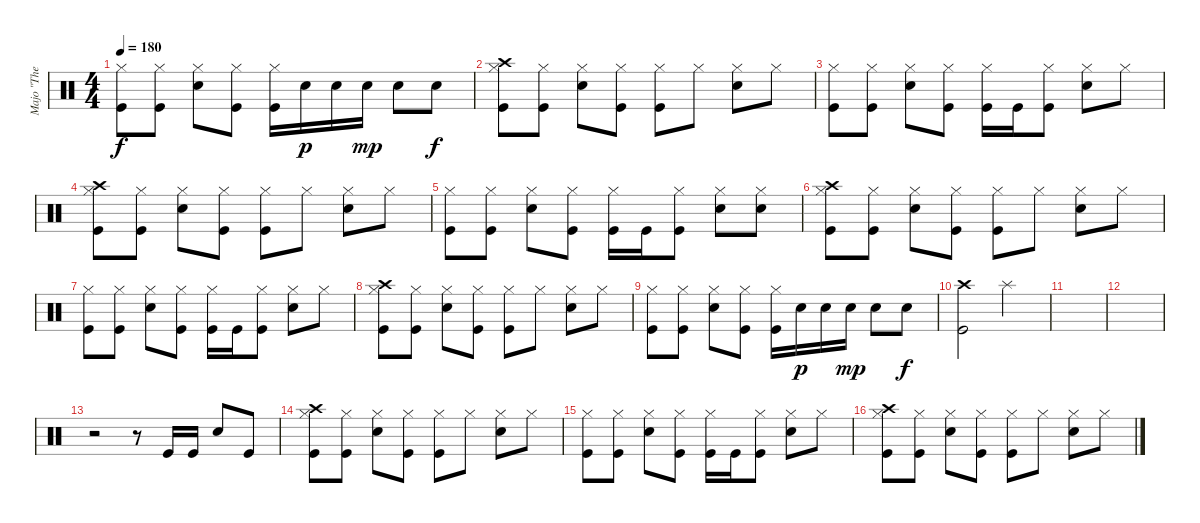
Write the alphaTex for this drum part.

\track ("Majo \"The Dremmel\" Hirt" "Majo \"The ") {instrument percussion}
\staff {score}
\articulation defaults
\ts (4 4)
\tempo 180
\clef neutral
\ks c
("Hi-Hat (closed)" "Kick (hit)").8{dy f} ("Hi-Hat (closed)" "Kick (hit)").8 ("Hi-Hat (closed)" "Electric Snare (hit)").8 ("Hi-Hat (closed)" "Kick (hit)").8 ("Hi-Hat (closed)" "Kick (hit)").16 "Electric Snare (hit)".16{dy p} "Electric Snare (hit)".16 "Electric Snare (hit)".16{dy mp} "Electric Snare (hit)".8 "Electric Snare (hit)".8{dy f} |
("Crash high (hit)" "Hi-Hat (closed)" "Kick (hit)").8 ("Hi-Hat (closed)" "Kick (hit)").8 ("Hi-Hat (closed)" "Electric Snare (hit)").8 ("Hi-Hat (closed)" "Kick (hit)").8 ("Hi-Hat (closed)" "Kick (hit)").8 "Hi-Hat (closed)".8 ("Hi-Hat (closed)" "Electric Snare (hit)").8 "Hi-Hat (closed)".8 |
("Hi-Hat (closed)" "Kick (hit)").8 ("Hi-Hat (closed)" "Kick (hit)").8 ("Hi-Hat (closed)" "Electric Snare (hit)").8 ("Hi-Hat (closed)" "Kick (hit)").8 ("Hi-Hat (closed)" "Kick (hit)").16 "Kick (hit)".16 ("Hi-Hat (closed)" "Kick (hit)").8 ("Hi-Hat (closed)" "Electric Snare (hit)").8 "Hi-Hat (closed)".8 |
("Crash high (hit)" "Hi-Hat (closed)" "Kick (hit)").8 ("Hi-Hat (closed)" "Kick (hit)").8 ("Hi-Hat (closed)" "Electric Snare (hit)").8 ("Hi-Hat (closed)" "Kick (hit)").8 ("Hi-Hat (closed)" "Kick (hit)").8 "Hi-Hat (closed)".8 ("Hi-Hat (closed)" "Electric Snare (hit)").8 "Hi-Hat (closed)".8 |
("Hi-Hat (closed)" "Kick (hit)").8 ("Hi-Hat (closed)" "Kick (hit)").8 ("Hi-Hat (closed)" "Electric Snare (hit)").8 ("Hi-Hat (closed)" "Kick (hit)").8 ("Hi-Hat (closed)" "Kick (hit)").16 "Kick (hit)".16 ("Hi-Hat (closed)" "Kick (hit)").8 ("Hi-Hat (closed)" "Electric Snare (hit)").8 ("Hi-Hat (closed)" "Electric Snare (hit)").8 |
("Crash high (hit)" "Hi-Hat (closed)" "Kick (hit)").8 ("Hi-Hat (closed)" "Kick (hit)").8 ("Hi-Hat (closed)" "Electric Snare (hit)").8 ("Hi-Hat (closed)" "Kick (hit)").8 ("Hi-Hat (closed)" "Kick (hit)").8 "Hi-Hat (closed)".8 ("Hi-Hat (closed)" "Electric Snare (hit)").8 "Hi-Hat (closed)".8 |
("Hi-Hat (closed)" "Kick (hit)").8 ("Hi-Hat (closed)" "Kick (hit)").8 ("Hi-Hat (closed)" "Electric Snare (hit)").8 ("Hi-Hat (closed)" "Kick (hit)").8 ("Hi-Hat (closed)" "Kick (hit)").16 "Kick (hit)".16 ("Hi-Hat (closed)" "Kick (hit)").8 ("Hi-Hat (closed)" "Electric Snare (hit)").8 "Hi-Hat (closed)".8 |
("Crash high (hit)" "Hi-Hat (closed)" "Kick (hit)").8 ("Hi-Hat (closed)" "Kick (hit)").8 ("Hi-Hat (closed)" "Electric Snare (hit)").8 ("Hi-Hat (closed)" "Kick (hit)").8 ("Hi-Hat (closed)" "Kick (hit)").8 "Hi-Hat (closed)".8 ("Hi-Hat (closed)" "Electric Snare (hit)").8 "Hi-Hat (closed)".8 |
("Hi-Hat (closed)" "Kick (hit)").8 ("Hi-Hat (closed)" "Kick (hit)").8 ("Hi-Hat (closed)" "Electric Snare (hit)").8 ("Hi-Hat (closed)" "Kick (hit)").8 ("Hi-Hat (closed)" "Kick (hit)").16 "Electric Snare (hit)".16{dy p} "Electric Snare (hit)".16 "Electric Snare (hit)".16{dy mp} "Electric Snare (hit)".8 "Electric Snare (hit)".8{dy f} |
("Crash high (hit)" "Kick (hit)").2 "Splash (hit)".2 |
|
|
r.2 r.8 "Kick (hit)".16 "Kick (hit)".16 "Electric Snare (hit)".8 "Kick (hit)".8 |
("Crash high (hit)" "Hi-Hat (closed)" "Kick (hit)").8 ("Hi-Hat (closed)" "Kick (hit)").8 ("Hi-Hat (closed)" "Electric Snare (hit)").8 ("Hi-Hat (closed)" "Kick (hit)").8 ("Hi-Hat (closed)" "Kick (hit)").8 "Hi-Hat (closed)".8 ("Hi-Hat (closed)" "Electric Snare (hit)").8 "Hi-Hat (closed)".8 |
("Hi-Hat (closed)" "Kick (hit)").8 ("Hi-Hat (closed)" "Kick (hit)").8 ("Hi-Hat (closed)" "Electric Snare (hit)").8 ("Hi-Hat (closed)" "Kick (hit)").8 ("Hi-Hat (closed)" "Kick (hit)").16 "Kick (hit)".16 ("Hi-Hat (closed)" "Kick (hit)").8 ("Hi-Hat (closed)" "Electric Snare (hit)").8 "Hi-Hat (closed)".8 |
("Crash high (hit)" "Hi-Hat (closed)" "Kick (hit)").8 ("Hi-Hat (closed)" "Kick (hit)").8 ("Hi-Hat (closed)" "Electric Snare (hit)").8 ("Hi-Hat (closed)" "Kick (hit)").8 ("Hi-Hat (closed)" "Kick (hit)").8 "Hi-Hat (closed)".8 ("Hi-Hat (closed)" "Electric Snare (hit)").8 "Hi-Hat (closed)".8
